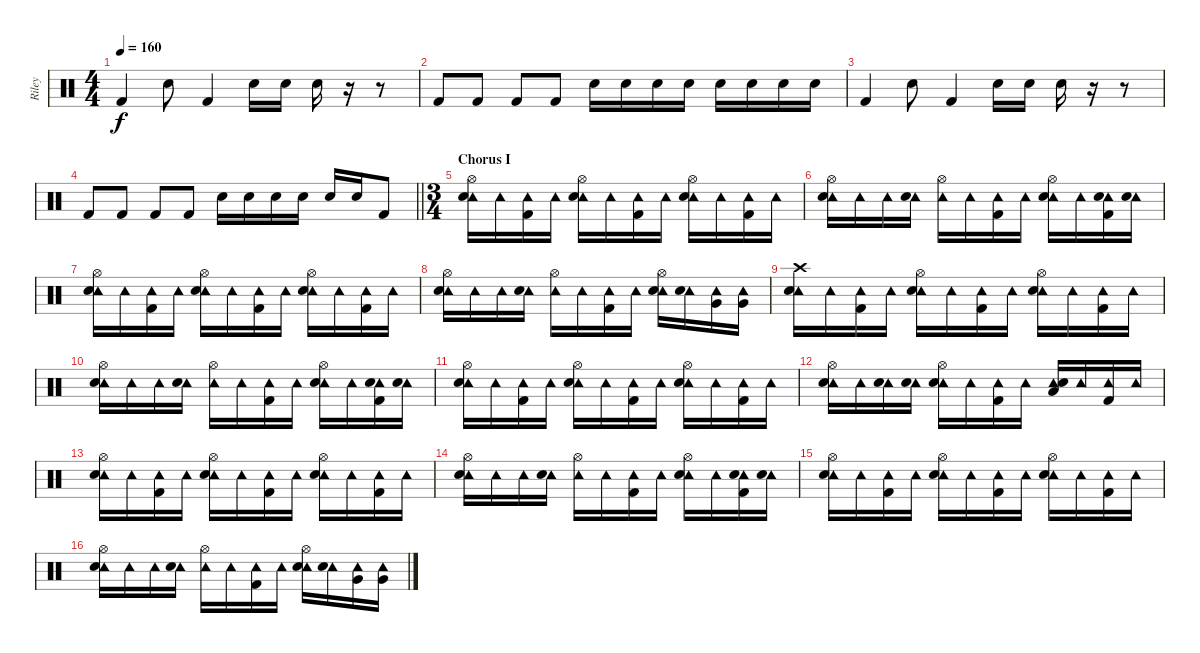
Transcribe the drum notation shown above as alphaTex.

\track ("Riley" "Riley") {instrument percussion}
\staff {score}
\articulation defaults
\ts (4 4)
\tempo 160
\clef neutral
\ks c "Kick (hit) 2".4{dy f} "Electric Snare (hit)".8 "Kick (hit) 2".4 "Electric Snare (hit)".16 "Electric Snare (hit)".16 "Electric Snare (hit)".16
r.16 r.8 |
"Kick (hit) 2".8 "Kick (hit) 2".8 "Kick (hit) 2".8 "Kick (hit) 2".8 "Electric Snare (hit)".16 "Electric Snare (hit)".16 "Electric Snare (hit)".16 "Electric Snare (hit)".16 "Electric Snare (hit)".16 "Electric Snare (hit)".16 "Electric Snare (hit)".16 "Electric Snare (hit)".16 |
"Kick (hit) 2".4 "Electric Snare (hit)".8 "Kick (hit) 2".4 "Electric Snare (hit)".16 "Electric Snare (hit)".16 "Electric Snare (hit)".16 r.16 r.8 |
\barLineRight lightlight "Kick (hit) 2".8 "Kick (hit) 2".8 "Kick (hit) 2".8 "Kick (hit) 2".8 "Electric Snare (hit)".16 "Electric Snare (hit)".16 "Electric Snare (hit)".16 "Electric Snare (hit)".16 "Electric Snare (hit)".16 "Electric Snare (hit)".16 "Kick (hit) 2".8
|
\ts (3 4)
\section ("" "Chorus I")
("Tambourine (hit)" "Hi-Hat (open)" "Electric Snare (hit)").16 "Tambourine (hit)".16 ("Tambourine (hit)" "Kick (hit) 2").16 "Tambourine (hit)".16 ("Tambourine (hit)" "Hi-Hat (open)" "Electric Snare (hit)").16 "Tambourine (hit)".16 ("Tambourine (hit)" "Kick (hit) 2").16 "Tambourine (hit)".16 ("Tambourine (hit)" "Hi-Hat (open)" "Electric Snare (hit)").16 "Tambourine (hit)".16 ("Tambourine (hit)" "Kick (hit) 2").16 "Tambourine (hit)".16 |
("Tambourine (hit)" "Hi-Hat (open)" "Electric Snare (hit)").16 "Tambourine (hit)".16 "Tambourine (hit)".16 ("Tambourine (hit)" "Electric Snare (hit)").16 ("Tambourine (hit)" "Hi-Hat (open)").16 "Tambourine (hit)".16 ("Tambourine (hit)" "Kick (hit) 2").16 "Tambourine (hit)".16 ("Tambourine (hit)" "Hi-Hat (open)" "Electric Snare (hit)").16 "Tambourine (hit)".16 ("Tambourine (hit)" "Electric Snare (hit)" "Kick (hit) 2").16 ("Tambourine (hit)" "Electric Snare (hit)").16 |
("Tambourine (hit)" "Hi-Hat (open)" "Electric Snare (hit)").16 "Tambourine (hit)".16 ("Tambourine (hit)" "Kick (hit) 2").16 "Tambourine (hit)".16 ("Tambourine (hit)" "Hi-Hat (open)" "Electric Snare (hit)").16 "Tambourine (hit)".16 ("Tambourine (hit)" "Kick (hit) 2").16 "Tambourine (hit)".16 ("Tambourine (hit)" "Hi-Hat (open)" "Electric Snare (hit)").16 "Tambourine (hit)".16 ("Tambourine (hit)" "Kick (hit) 2").16 "Tambourine (hit)".16 |
("Tambourine (hit)" "Hi-Hat (open)" "Electric Snare (hit)").16 "Tambourine (hit)".16 "Tambourine (hit)".16 ("Tambourine (hit)" "Electric Snare (hit)").16 ("Tambourine (hit)" "Hi-Hat (open)").16 "Tambourine (hit)".16 ("Tambourine (hit)" "Kick (hit) 2").16 "Tambourine (hit)".16 ("Tambourine (hit)" "Hi-Hat (open)" "Electric Snare (hit)").16 ("Tambourine (hit)" "Electric Snare (hit)").16 ("Tambourine (hit)" "Very Low Tom (hit)").16 ("Tambourine (hit)" "Very Low Tom (hit)").16 |
("Tambourine (hit)" "Crash high (hit)" "Electric Snare (hit)").16 "Tambourine (hit)".16 ("Tambourine (hit)" "Kick (hit) 2").16 "Tambourine (hit)".16 ("Tambourine (hit)" "Hi-Hat (open)" "Electric Snare (hit)").16 "Tambourine (hit)".16 ("Tambourine (hit)" "Kick (hit) 2").16 "Tambourine (hit)".16 ("Tambourine (hit)" "Hi-Hat (open)" "Electric Snare (hit)").16 "Tambourine (hit)".16 ("Tambourine (hit)" "Kick (hit) 2").16 "Tambourine (hit)".16 |
("Tambourine (hit)" "Hi-Hat (open)" "Electric Snare (hit)").16 "Tambourine (hit)".16 "Tambourine (hit)".16 ("Tambourine (hit)" "Electric Snare (hit)").16 ("Tambourine (hit)" "Hi-Hat (open)").16 "Tambourine (hit)".16 ("Tambourine (hit)" "Kick (hit) 2").16 "Tambourine (hit)".16 ("Tambourine (hit)" "Hi-Hat (open)" "Electric Snare (hit)").16 "Tambourine (hit)".16 ("Tambourine (hit)" "Electric Snare (hit)" "Kick (hit) 2").16 ("Tambourine (hit)" "Electric Snare (hit)").16 |
("Tambourine (hit)" "Hi-Hat (open)" "Electric Snare (hit)").16 "Tambourine (hit)".16 ("Tambourine (hit)" "Kick (hit) 2").16 "Tambourine (hit)".16 ("Tambourine (hit)" "Hi-Hat (open)" "Electric Snare (hit)").16 "Tambourine (hit)".16 ("Tambourine (hit)" "Kick (hit) 2").16 "Tambourine (hit)".16 ("Tambourine (hit)" "Hi-Hat (open)" "Electric Snare (hit)").16 "Tambourine (hit)".16 ("Tambourine (hit)" "Kick (hit) 2").16 "Tambourine (hit)".16 |
("Tambourine (hit)" "Hi-Hat (open)" "Electric Snare (hit)").16 "Tambourine (hit)".16 ("Tambourine (hit)" "Electric Snare (hit)").16 ("Tambourine (hit)" "Electric Snare (hit)").16 ("Tambourine (hit)" "Hi-Hat (open)" "Electric Snare (hit)").16 "Tambourine (hit)".16 ("Tambourine (hit)" "Kick (hit) 2").16 "Tambourine (hit)".16 ("Tambourine (hit)" "Low Floor Tom (hit)" "Electric Snare (hit)").16 "Tambourine (hit)".16 ("Tambourine (hit)" "Kick (hit) 2").16 "Tambourine (hit)".16 |
("Tambourine (hit)" "Hi-Hat (open)" "Electric Snare (hit)").16 "Tambourine (hit)".16 ("Tambourine (hit)" "Kick (hit) 2").16 "Tambourine (hit)".16 ("Tambourine (hit)" "Hi-Hat (open)" "Electric Snare (hit)").16 "Tambourine (hit)".16 ("Tambourine (hit)" "Kick (hit) 2").16 "Tambourine (hit)".16 ("Tambourine (hit)" "Hi-Hat (open)" "Electric Snare (hit)").16 "Tambourine (hit)".16 ("Tambourine (hit)" "Kick (hit) 2").16 "Tambourine (hit)".16 |
("Tambourine (hit)" "Hi-Hat (open)" "Electric Snare (hit)").16 "Tambourine (hit)".16 "Tambourine (hit)".16 ("Tambourine (hit)" "Electric Snare (hit)").16 ("Tambourine (hit)" "Hi-Hat (open)").16 "Tambourine (hit)".16 ("Tambourine (hit)" "Kick (hit) 2").16 "Tambourine (hit)".16 ("Tambourine (hit)" "Hi-Hat (open)" "Electric Snare (hit)").16 "Tambourine (hit)".16 ("Tambourine (hit)" "Electric Snare (hit)" "Kick (hit) 2").16 ("Tambourine (hit)" "Electric Snare (hit)").16 |
("Tambourine (hit)" "Hi-Hat (open)" "Electric Snare (hit)").16 "Tambourine (hit)".16 ("Tambourine (hit)" "Kick (hit) 2").16 "Tambourine (hit)".16 ("Tambourine (hit)" "Hi-Hat (open)" "Electric Snare (hit)").16 "Tambourine (hit)".16 ("Tambourine (hit)" "Kick (hit) 2").16 "Tambourine (hit)".16 ("Tambourine (hit)" "Hi-Hat (open)" "Electric Snare (hit)").16 "Tambourine (hit)".16 ("Tambourine (hit)" "Kick (hit) 2").16 "Tambourine (hit)".16 |
("Tambourine (hit)" "Hi-Hat (open)" "Electric Snare (hit)").16 "Tambourine (hit)".16 "Tambourine (hit)".16 ("Tambourine (hit)" "Electric Snare (hit)").16 ("Tambourine (hit)" "Hi-Hat (open)").16 "Tambourine (hit)".16 ("Tambourine (hit)" "Kick (hit) 2").16 "Tambourine (hit)".16 ("Tambourine (hit)" "Hi-Hat (open)" "Electric Snare (hit)").16 ("Tambourine (hit)" "Electric Snare (hit)").16 ("Tambourine (hit)" "Very Low Tom (hit)").16 ("Tambourine (hit)" "Very Low Tom (hit)").16
